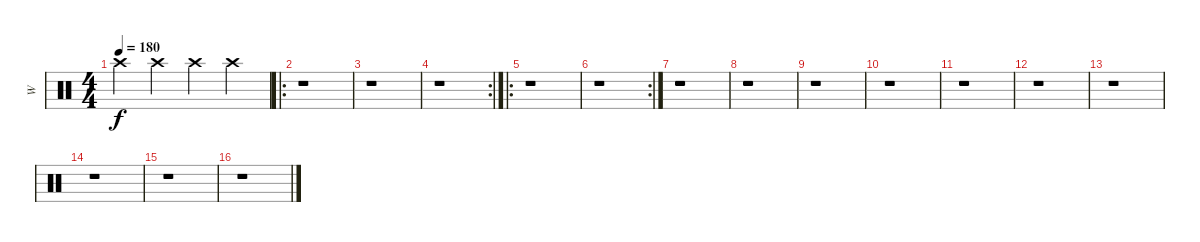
\track ("W" "W") {instrument percussion}
\staff {score}
\articulation defaults
\ts (4 4)
\tempo 180
\clef neutral
\ks c "Crash high (hit)".4{dy f} "Crash high (hit)".4 "Crash high (hit)".4 "Crash high (hit)".4
|
\ro
r.1 |
r.1 |
\rc 2
r.1 |
\ro
r.1 |
\rc 2
r.1 |
r.1 |
r.1 |
r.1 |
r.1 |
r.1 |
r.1 |
r.1 |
r.1 |
r.1 |
r.1
